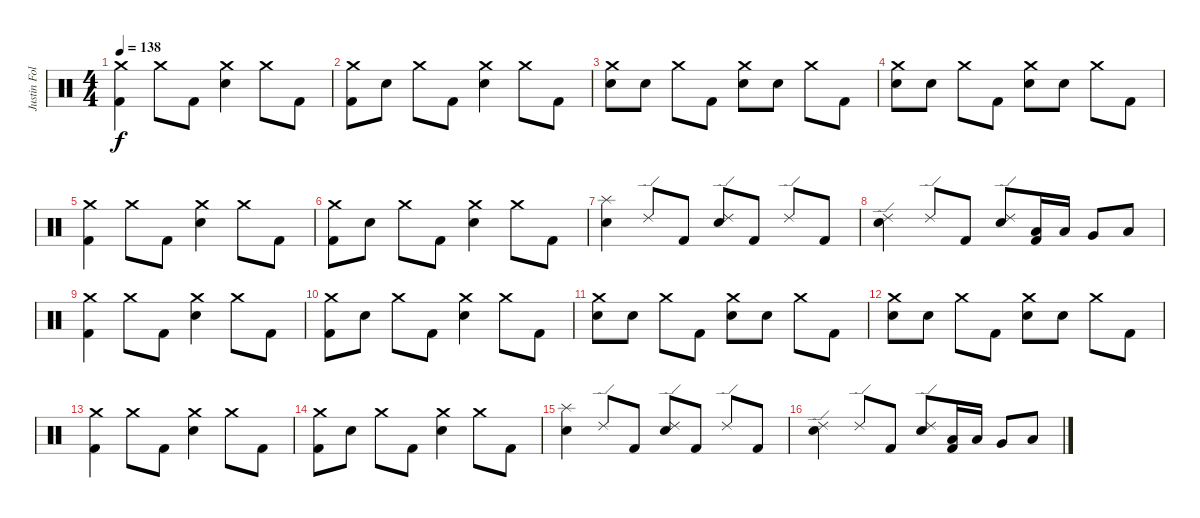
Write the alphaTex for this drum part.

\track ("Justin Foley" "Justin Fol") {instrument percussion}
\staff {score}
\articulation defaults
\ts (4 4)
\tempo 138
\clef neutral
\ks c
("Crash medium (hit)" "Kick (hit) 2").4{dy f} "Crash medium (hit)".8 "Kick (hit) 2".8 ("Crash medium (hit)" "Electric Snare (hit)").4 "Crash medium (hit)".8 "Kick (hit) 2".8 |
("Crash medium (hit)" "Kick (hit) 2").8 "Electric Snare (hit)".8 "Crash medium (hit)".8 "Kick (hit) 2".8 ("Crash medium (hit)" "Electric Snare (hit)").4 "Crash medium (hit)".8 "Kick (hit) 2".8 |
("Crash medium (hit)" "Electric Snare (hit)").8 "Electric Snare (hit)".8 "Crash medium (hit)".8 "Kick (hit) 2".8 ("Crash medium (hit)" "Electric Snare (hit)").8 "Electric Snare (hit)".8 "Crash medium (hit)".8 "Kick (hit) 2".8 |
("Crash medium (hit)" "Electric Snare (hit)").8 "Electric Snare (hit)".8 "Crash medium (hit)".8 "Kick (hit) 2".8 ("Crash medium (hit)" "Electric Snare (hit)").8 "Electric Snare (hit)".8 "Crash medium (hit)".8 "Kick (hit) 2".8 |
("Crash medium (hit)" "Kick (hit) 2").4 "Crash medium (hit)".8 "Kick (hit) 2".8 ("Crash medium (hit)" "Electric Snare (hit)").4 "Crash medium (hit)".8 "Kick (hit) 2".8 |
("Crash medium (hit)" "Kick (hit) 2").8 "Electric Snare (hit)".8 "Crash medium (hit)".8 "Kick (hit) 2".8 ("Crash medium (hit)" "Electric Snare (hit)").4 "Crash medium (hit)".8 "Kick (hit) 2".8 |
("Splash (hit)" "Electric Snare (hit)").4 "Ride (edge) 2".8 "Kick (hit) 2".8 ("Ride (edge) 2" "Electric Snare (hit)").8 "Kick (hit) 2".8 "Ride (edge) 2".8 "Kick (hit) 2".8 |
("Ride (edge) 2" "Electric Snare (hit)").4 "Ride (edge) 2".8 "Kick (hit) 2".8 ("Ride (edge) 2" "Electric Snare (hit)").8 ("Low Tom (hit)" "Kick (hit) 2").16 "Low Tom (hit)".16 "Very Low Tom (hit)".8 "Low Floor Tom (hit)".8 |
("Crash medium (hit)" "Kick (hit) 2").4 "Crash medium (hit)".8 "Kick (hit) 2".8 ("Crash medium (hit)" "Electric Snare (hit)").4 "Crash medium (hit)".8 "Kick (hit) 2".8 |
("Crash medium (hit)" "Kick (hit) 2").8 "Electric Snare (hit)".8 "Crash medium (hit)".8 "Kick (hit) 2".8 ("Crash medium (hit)" "Electric Snare (hit)").4 "Crash medium (hit)".8 "Kick (hit) 2".8 |
("Crash medium (hit)" "Electric Snare (hit)").8 "Electric Snare (hit)".8 "Crash medium (hit)".8 "Kick (hit) 2".8 ("Crash medium (hit)" "Electric Snare (hit)").8 "Electric Snare (hit)".8 "Crash medium (hit)".8 "Kick (hit) 2".8 |
("Crash medium (hit)" "Electric Snare (hit)").8 "Electric Snare (hit)".8 "Crash medium (hit)".8 "Kick (hit) 2".8 ("Crash medium (hit)" "Electric Snare (hit)").8 "Electric Snare (hit)".8 "Crash medium (hit)".8 "Kick (hit) 2".8 |
("Crash medium (hit)" "Kick (hit) 2").4 "Crash medium (hit)".8 "Kick (hit) 2".8 ("Crash medium (hit)" "Electric Snare (hit)").4 "Crash medium (hit)".8 "Kick (hit) 2".8 |
("Crash medium (hit)" "Kick (hit) 2").8 "Electric Snare (hit)".8 "Crash medium (hit)".8 "Kick (hit) 2".8 ("Crash medium (hit)" "Electric Snare (hit)").4 "Crash medium (hit)".8 "Kick (hit) 2".8 |
("Splash (hit)" "Electric Snare (hit)").4 "Ride (edge) 2".8 "Kick (hit) 2".8 ("Ride (edge) 2" "Electric Snare (hit)").8 "Kick (hit) 2".8 "Ride (edge) 2".8 "Kick (hit) 2".8 |
("Ride (edge) 2" "Electric Snare (hit)").4 "Ride (edge) 2".8 "Kick (hit) 2".8 ("Ride (edge) 2" "Electric Snare (hit)").8 ("Low Tom (hit)" "Kick (hit) 2").16 "Low Tom (hit)".16 "Very Low Tom (hit)".8 "Low Floor Tom (hit)".8
